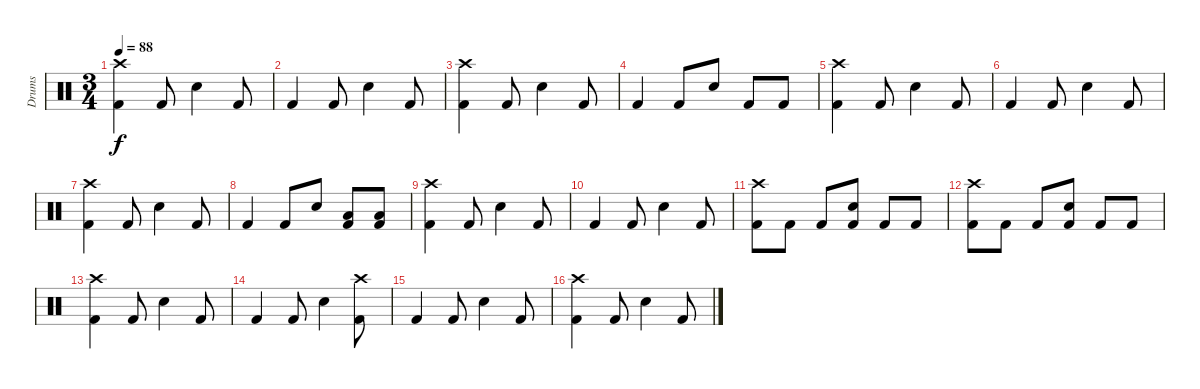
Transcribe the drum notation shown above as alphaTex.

\track ("Drums" "Drums") {instrument percussion}
\staff {score}
\articulation defaults
\ts (3 4)
\tempo 88
\clef neutral
\ks c
("Crash high (hit)" "Kick (hit) 2").4{dy f} "Kick (hit) 2".8 "Snare (hit) 2".4 "Kick (hit) 2".8 |
"Kick (hit) 2".4 "Kick (hit) 2".8 "Snare (hit) 2".4 "Kick (hit) 2".8 |
("Crash high (hit)" "Kick (hit) 2").4 "Kick (hit) 2".8 "Snare (hit) 2".4 "Kick (hit) 2".8 |
"Kick (hit) 2".4 "Kick (hit) 2".8 "Snare (hit) 2".8 "Kick (hit) 2".8 "Kick (hit) 2".8 |
("Crash high (hit)" "Kick (hit) 2").4 "Kick (hit) 2".8 "Snare (hit) 2".4 "Kick (hit) 2".8 |
"Kick (hit) 2".4 "Kick (hit) 2".8 "Snare (hit) 2".4 "Kick (hit) 2".8 |
("Crash high (hit)" "Kick (hit) 2").4 "Kick (hit) 2".8 "Snare (hit) 2".4 "Kick (hit) 2".8 |
"Kick (hit) 2".4 "Kick (hit) 2".8 "Snare (hit) 2".8 ("Low Tom (hit)" "Kick (hit) 2").8 ("Low Tom (hit)" "Kick (hit) 2").8 |
("Crash high (hit)" "Kick (hit) 2").4 "Kick (hit) 2".8 "Snare (hit) 2".4 "Kick (hit) 2".8 |
"Kick (hit) 2".4 "Kick (hit) 2".8 "Snare (hit) 2".4 "Kick (hit) 2".8 |
("Crash high (hit)" "Kick (hit) 2").8 "Kick (hit) 2".8 "Kick (hit) 2".8 ("Snare (hit) 2" "Kick (hit) 2").8 "Kick (hit) 2".8 "Kick (hit) 2".8 |
("Crash high (hit)" "Kick (hit) 2").8 "Kick (hit) 2".8 "Kick (hit) 2".8 ("Snare (hit) 2" "Kick (hit) 2").8 "Kick (hit) 2".8 "Kick (hit) 2".8 |
("Crash high (hit)" "Kick (hit) 2").4 "Kick (hit) 2".8 "Snare (hit) 2".4 "Kick (hit) 2".8 |
"Kick (hit) 2".4 "Kick (hit) 2".8 "Snare (hit) 2".4 ("Crash high (hit)" "Kick (hit) 2").8 |
"Kick (hit) 2".4 "Kick (hit) 2".8 "Snare (hit) 2".4 "Kick (hit) 2".8 |
("Crash high (hit)" "Kick (hit) 2").4 "Kick (hit) 2".8 "Snare (hit) 2".4 "Kick (hit) 2".8
